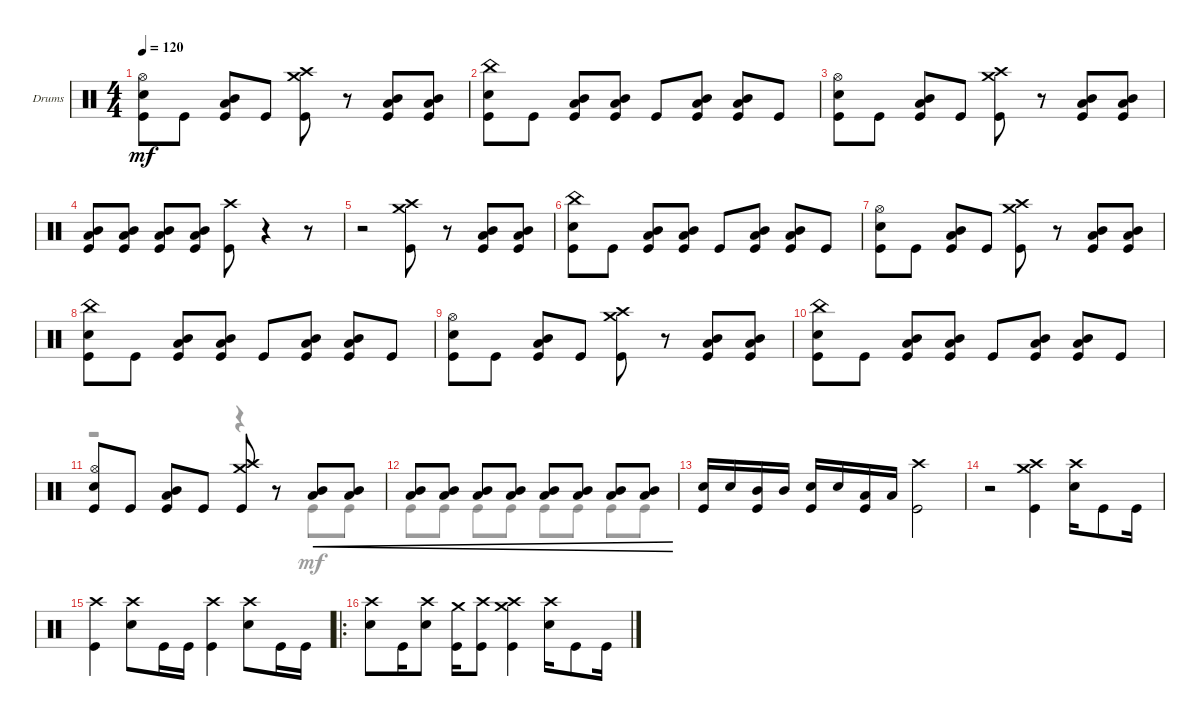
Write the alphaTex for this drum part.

\defaultSystemsLayout 4
\bracketExtendMode groupsimilarinstruments
\firstSystemTrackNameOrientation horizontal
\otherSystemsTrackNameOrientation horizontal
\track ("Drumkit" "Drums") {instrument percussion}
\staff {score}
\articulation defaults
\voice
\ts (4 4)
\tempo 120
\clef neutral
\ks c
("Kick (hit)" "Snare (hit) 2" "Hi-Hat (open)").8{dy mf} "Kick (hit)".8 ("Kick (hit)" "Mid Tom (hit)" "Low Tom (hit)").8 "Kick (hit)".8 ("Kick (hit)" "Crash high (hit)" "Crash medium (hit)").8 r.8 ("Kick (hit)" "Mid Tom (hit)" "Low Tom (hit)").8 ("Kick (hit)" "Low Tom (hit)" "Mid Tom (hit)").8 |
("Kick (hit)" "China (hit)" "Snare (hit) 2").8 "Kick (hit)".8 ("Kick (hit)" "Low Tom (hit)" "Mid Tom (hit)").8 ("Kick (hit)" "Mid Tom (hit)" "Low Tom (hit)").8 "Kick (hit)".8 ("Kick (hit)" "Mid Tom (hit)" "Low Tom (hit)").8 ("Kick (hit)" "Mid Tom (hit)" "Low Tom (hit)").8 "Kick (hit)".8 |
("Kick (hit)" "Snare (hit) 2" "Hi-Hat (open)").8 "Kick (hit)".8 ("Kick (hit)" "Mid Tom (hit)" "Low Tom (hit)").8 "Kick (hit)".8 ("Kick (hit)" "Crash high (hit)" "Crash medium (hit)").8 r.8 ("Kick (hit)" "Low Tom (hit)" "Mid Tom (hit)").8 ("Kick (hit)" "Mid Tom (hit)" "Low Tom (hit)").8 |
("Kick (hit)" "Low Tom (hit)" "Mid Tom (hit)").8 ("Kick (hit)" "Mid Tom (hit)" "Low Tom (hit)").8 ("Kick (hit)" "Low Tom (hit)" "Mid Tom (hit)").8 ("Kick (hit)" "Mid Tom (hit)" "Low Tom (hit)").8 ("Kick (hit)" "Crash high (hit)").8 r.4 r.8 |
r.2 ("Kick (hit)" "Crash high (hit)" "Crash medium (hit)").8 r.8 ("Kick (hit)" "Low Tom (hit)" "Mid Tom (hit)").8 ("Kick (hit)" "Mid Tom (hit)" "Low Tom (hit)").8 |
("Kick (hit)" "China (hit)" "Snare (hit) 2").8 "Kick (hit)".8 ("Kick (hit)" "Low Tom (hit)" "Mid Tom (hit)").8 ("Kick (hit)" "Mid Tom (hit)" "Low Tom (hit)").8 "Kick (hit)".8 ("Kick (hit)" "Mid Tom (hit)" "Low Tom (hit)").8 ("Kick (hit)" "Mid Tom (hit)" "Low Tom (hit)").8 "Kick (hit)".8 |
("Kick (hit)" "Snare (hit) 2" "Hi-Hat (open)").8 "Kick (hit)".8 ("Kick (hit)" "Mid Tom (hit)" "Low Tom (hit)").8 "Kick (hit)".8 ("Kick (hit)" "Crash high (hit)" "Crash medium (hit)").8 r.8 ("Kick (hit)" "Mid Tom (hit)" "Low Tom (hit)").8 ("Kick (hit)" "Low Tom (hit)" "Mid Tom (hit)").8 |
("Kick (hit)" "China (hit)" "Snare (hit) 2").8 "Kick (hit)".8 ("Kick (hit)" "Low Tom (hit)" "Mid Tom (hit)").8 ("Kick (hit)" "Mid Tom (hit)" "Low Tom (hit)").8 "Kick (hit)".8 ("Kick (hit)" "Mid Tom (hit)" "Low Tom (hit)").8 ("Kick (hit)" "Mid Tom (hit)" "Low Tom (hit)").8 "Kick (hit)".8 |
("Kick (hit)" "Snare (hit) 2" "Hi-Hat (open)").8 "Kick (hit)".8 ("Kick (hit)" "Mid Tom (hit)" "Low Tom (hit)").8 "Kick (hit)".8 ("Kick (hit)" "Crash high (hit)" "Crash medium (hit)").8 r.8 ("Kick (hit)" "Mid Tom (hit)" "Low Tom (hit)").8 ("Kick (hit)" "Low Tom (hit)" "Mid Tom (hit)").8 |
("Kick (hit)" "China (hit)" "Snare (hit) 2").8 "Kick (hit)".8 ("Kick (hit)" "Low Tom (hit)" "Mid Tom (hit)").8 ("Kick (hit)" "Mid Tom (hit)" "Low Tom (hit)").8 "Kick (hit)".8 ("Kick (hit)" "Mid Tom (hit)" "Low Tom (hit)").8 ("Kick (hit)" "Mid Tom (hit)" "Low Tom (hit)").8 "Kick (hit)".8 |
("Kick (hit)" "Snare (hit) 2" "Hi-Hat (open)").8 "Kick (hit)".8 ("Kick (hit)" "Mid Tom (hit)" "Low Tom (hit)").8 "Kick (hit)".8 ("Kick (hit)" "Crash high (hit)" "Crash medium (hit)").8 r.8 ("Low Tom (hit)" "Mid Tom (hit)").8{cre} ("Mid Tom (hit)" "Low Tom (hit)").8{cre} |
("Low Tom (hit)" "Mid Tom (hit)").8{cre} ("Mid Tom (hit)" "Low Tom (hit)").8{cre} ("Low Tom (hit)" "Mid Tom (hit)").8{cre} ("Mid Tom (hit)" "Low Tom (hit)").8{cre} ("Low Tom (hit)" "Mid Tom (hit)").8{cre} ("Mid Tom (hit)" "Low Tom (hit)").8{cre} ("Low Tom (hit)" "Mid Tom (hit)").8{cre} ("Mid Tom (hit)" "Low Tom (hit)").8{cre} |
("Snare (hit) 2" "Kick (hit)").16 "Snare (hit) 2".16 ("Mid Tom (hit)" "Kick (hit)").16 "Mid Tom (hit)".16 ("Snare (hit) 2" "Kick (hit)").16 "Snare (hit) 2".16 ("Low Tom (hit)" "Kick (hit)").16 "Low Tom (hit)".16 ("Kick (hit)" "Crash high (hit)").2 |
r.2 ("Crash high (hit)" "Crash medium (hit)" "Kick (hit)").4 ("Crash high (hit)" "Snare (hit) 2").16 "Kick (hit)".8 "Kick (hit)".16 |
("Kick (hit)" "Crash high (hit)").4 ("Crash high (hit)" "Snare (hit) 2").8 "Kick (hit)".16 "Kick (hit)".16 ("Crash high (hit)" "Kick (hit)").4 ("Crash high (hit)" "Snare (hit) 2").8 "Kick (hit)".16 "Kick (hit)".16 |
\ro
("Crash high (hit)" "Snare (hit) 2").8 "Kick (hit)".16 ("Snare (hit) 2" "Crash high (hit)").8 ("Kick (hit)" "Crash medium (hit)").16 ("Kick (hit)" "Crash high (hit)").8 ("Crash high (hit)" "Crash medium (hit)" "Kick (hit)").4 ("Crash high (hit)" "Snare (hit) 2").16 "Kick (hit)".8 "Kick (hit)".16
\voice
\clef neutral
\ottava regular
\simile none
\ks c
|
|
|
|
|
|
|
|
|
|
r.2 r.4 "Kick (hit)".8 "Kick (hit)".8 |
"Kick (hit)".8 "Kick (hit)".8 "Kick (hit)".8 "Kick (hit)".8 "Kick (hit)".8 "Kick (hit)".8 "Kick (hit)".8 "Kick (hit)".8 |
|
|
|
